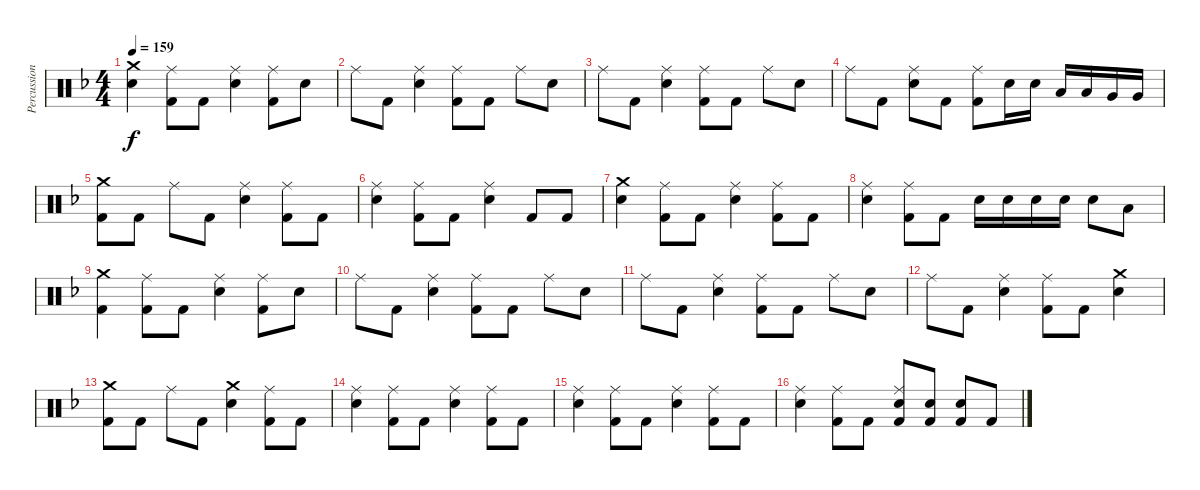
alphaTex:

\track ("Percussion" "Percussion") {instrument percussion}
\staff {score}
\articulation defaults
\ts (4 4)
\tempo 159
\clef neutral
\ks f
("Crash medium (hit)" "Electric Snare (hit)").4{dy f} ("Ride (middle)" "Kick (hit) 2").8 "Kick (hit) 2".8 ("Ride (middle)" "Electric Snare (hit)").4 ("Ride (middle)" "Kick (hit) 2").8 "Electric Snare (hit)".8 |
"Ride (middle)".8 "Kick (hit) 2".8 ("Ride (middle)" "Electric Snare (hit)").4 ("Ride (middle)" "Kick (hit) 2").8 "Kick (hit) 2".8 "Ride (middle)".8 "Electric Snare (hit)".8 |
"Ride (middle)".8 "Kick (hit) 2".8 ("Ride (middle)" "Electric Snare (hit)").4 ("Ride (middle)" "Kick (hit) 2").8 "Kick (hit) 2".8 "Ride (middle)".8 "Electric Snare (hit)".8 |
"Ride (middle)".8 "Kick (hit) 2".8 ("Ride (middle)" "Electric Snare (hit)").8 "Kick (hit) 2".8 ("Ride (middle)" "Kick (hit) 2").8 "Electric Snare (hit)".16 "Electric Snare (hit)".16 "Low Tom (hit)".16 "Low Tom (hit)".16 "Very Low Tom (hit)".16 "Very Low Tom (hit)".16 |
("Crash medium (hit)" "Kick (hit) 2").8 "Kick (hit) 2".8 "Ride (middle)".8 "Kick (hit) 2".8 ("Ride (middle)" "Electric Snare (hit)").4 ("Ride (middle)" "Kick (hit) 2").8 "Kick (hit) 2".8 |
("Ride (middle)" "Electric Snare (hit)").4 ("Ride (middle)" "Kick (hit) 2").8 "Kick (hit) 2".8 ("Ride (middle)" "Electric Snare (hit)").4 "Kick (hit) 2".8 "Kick (hit) 2".8 |
("Crash medium (hit)" "Electric Snare (hit)").4 ("Ride (middle)" "Kick (hit) 2").8 "Kick (hit) 2".8 ("Ride (middle)" "Electric Snare (hit)").4 ("Ride (middle)" "Kick (hit) 2").8 "Kick (hit) 2".8 |
("Ride (middle)" "Electric Snare (hit)").4 ("Ride (middle)" "Kick (hit) 2").8 "Kick (hit) 2".8 "Electric Snare (hit)".16 "Electric Snare (hit)".16 "Electric Snare (hit)".16 "Electric Snare (hit)".16 "Electric Snare (hit)".8 "Low Tom (hit)".8 |
("Crash medium (hit)" "Kick (hit) 2").4 ("Ride (middle)" "Kick (hit) 2").8 "Kick (hit) 2".8 ("Ride (middle)" "Electric Snare (hit)").4 ("Ride (middle)" "Kick (hit) 2").8 "Electric Snare (hit)".8 |
"Ride (middle)".8 "Kick (hit) 2".8 ("Ride (middle)" "Electric Snare (hit)").4 ("Ride (middle)" "Kick (hit) 2").8 "Kick (hit) 2".8 "Ride (middle)".8 "Electric Snare (hit)".8 |
"Ride (middle)".8 "Kick (hit) 2".8 ("Ride (middle)" "Electric Snare (hit)").4 ("Ride (middle)" "Kick (hit) 2").8 "Kick (hit) 2".8 "Ride (middle)".8 "Electric Snare (hit)".8 |
"Ride (middle)".8 "Kick (hit) 2".8 ("Ride (middle)" "Electric Snare (hit)").4 ("Ride (middle)" "Kick (hit) 2").8 "Kick (hit) 2".8 ("Crash medium (hit)" "Electric Snare (hit)").4 |
("Crash medium (hit)" "Kick (hit) 2").8 "Kick (hit) 2".8 "Ride (middle)".8 "Kick (hit) 2".8 ("Crash medium (hit)" "Electric Snare (hit)").4 ("Ride (middle)" "Kick (hit) 2").8 "Kick (hit) 2".8 |
("Ride (middle)" "Electric Snare (hit)").4 ("Ride (middle)" "Kick (hit) 2").8 "Kick (hit) 2".8 ("Ride (middle)" "Electric Snare (hit)").4 ("Ride (middle)" "Kick (hit) 2").8 "Kick (hit) 2".8 |
("Ride (middle)" "Electric Snare (hit)").4 ("Ride (middle)" "Kick (hit) 2").8 "Kick (hit) 2".8 ("Ride (middle)" "Electric Snare (hit)").4 ("Ride (middle)" "Kick (hit) 2").8 "Kick (hit) 2".8 |
("Ride (middle)" "Electric Snare (hit)").4 ("Ride (middle)" "Kick (hit) 2").8 "Kick (hit) 2".8 ("Ride (middle)" "Electric Snare (hit)" "Kick (hit) 2").8 ("Electric Snare (hit)" "Kick (hit) 2").8 ("Electric Snare (hit)" "Kick (hit) 2").8 "Kick (hit) 2".8
